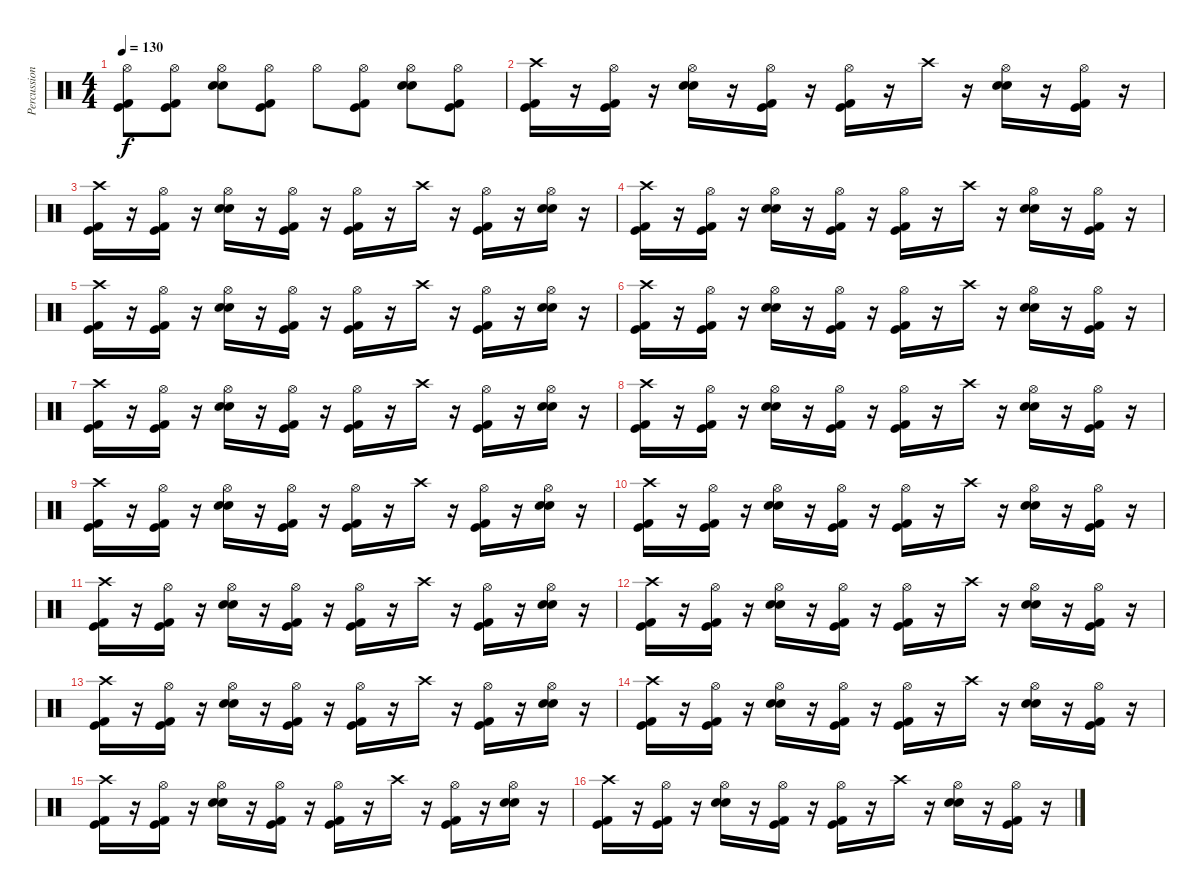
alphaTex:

\track ("Percussions" "Percussion") {instrument percussion}
\staff {score}
\articulation defaults
\ts (4 4)
\tempo 130
\clef neutral
\ks c
("Hi-Hat (open)" "Kick (hit)" "Kick (hit) 2").8{dy f} ("Hi-Hat (open)" "Kick (hit)" "Kick (hit) 2").8 ("Hi-Hat (open)" "Snare (hit) 2" "Electric Snare (hit)").8 ("Hi-Hat (open)" "Kick (hit)" "Kick (hit) 2").8 "Hi-Hat (open)".8 ("Hi-Hat (open)" "Kick (hit)" "Kick (hit) 2").8 ("Hi-Hat (open)" "Snare (hit) 2" "Electric Snare (hit)").8 ("Hi-Hat (open)" "Kick (hit)" "Kick (hit) 2").8 |
("Crash high (hit)" "Kick (hit)" "Kick (hit) 2").16 r.16 ("Hi-Hat (open)" "Kick (hit)" "Kick (hit) 2").16 r.16 ("Hi-Hat (open)" "Snare (hit) 2" "Electric Snare (hit)").16 r.16 ("Hi-Hat (open)" "Kick (hit)" "Kick (hit) 2").16 r.16 ("Hi-Hat (open)" "Kick (hit)" "Kick (hit) 2").16 r.16 "Crash high (hit)".16 r.16 ("Hi-Hat (open)" "Snare (hit) 2" "Electric Snare (hit)").16 r.16 ("Hi-Hat (open)" "Kick (hit)" "Kick (hit) 2").16 r.16 |
("Crash high (hit)" "Kick (hit)" "Kick (hit) 2").16 r.16 ("Hi-Hat (open)" "Kick (hit)" "Kick (hit) 2").16 r.16 ("Hi-Hat (open)" "Snare (hit) 2" "Electric Snare (hit)").16 r.16 ("Hi-Hat (open)" "Kick (hit)" "Kick (hit) 2").16 r.16 ("Hi-Hat (open)" "Kick (hit)" "Kick (hit) 2").16 r.16 "Crash high (hit)".16 r.16 ("Hi-Hat (open)" "Kick (hit)" "Kick (hit) 2").16 r.16 ("Hi-Hat (open)" "Snare (hit) 2" "Electric Snare (hit)").16 r.16 |
("Crash high (hit)" "Kick (hit)" "Kick (hit) 2").16 r.16 ("Hi-Hat (open)" "Kick (hit)" "Kick (hit) 2").16 r.16 ("Hi-Hat (open)" "Snare (hit) 2" "Electric Snare (hit)").16 r.16 ("Hi-Hat (open)" "Kick (hit)" "Kick (hit) 2").16 r.16 ("Hi-Hat (open)" "Kick (hit)" "Kick (hit) 2").16 r.16 "Crash high (hit)".16 r.16 ("Hi-Hat (open)" "Snare (hit) 2" "Electric Snare (hit)").16 r.16 ("Hi-Hat (open)" "Kick (hit)" "Kick (hit) 2").16 r.16 |
("Crash high (hit)" "Kick (hit)" "Kick (hit) 2").16 r.16 ("Hi-Hat (open)" "Kick (hit)" "Kick (hit) 2").16 r.16 ("Hi-Hat (open)" "Snare (hit) 2" "Electric Snare (hit)").16 r.16 ("Hi-Hat (open)" "Kick (hit)" "Kick (hit) 2").16 r.16 ("Hi-Hat (open)" "Kick (hit)" "Kick (hit) 2").16 r.16 "Crash high (hit)".16 r.16 ("Hi-Hat (open)" "Kick (hit)" "Kick (hit) 2").16 r.16 ("Hi-Hat (open)" "Snare (hit) 2" "Electric Snare (hit)").16 r.16 |
("Crash high (hit)" "Kick (hit)" "Kick (hit) 2").16 r.16 ("Hi-Hat (open)" "Kick (hit)" "Kick (hit) 2").16 r.16 ("Hi-Hat (open)" "Snare (hit) 2" "Electric Snare (hit)").16 r.16 ("Hi-Hat (open)" "Kick (hit)" "Kick (hit) 2").16 r.16 ("Hi-Hat (open)" "Kick (hit)" "Kick (hit) 2").16 r.16 "Crash high (hit)".16 r.16 ("Hi-Hat (open)" "Snare (hit) 2" "Electric Snare (hit)").16 r.16 ("Hi-Hat (open)" "Kick (hit)" "Kick (hit) 2").16 r.16 |
("Crash high (hit)" "Kick (hit)" "Kick (hit) 2").16 r.16 ("Hi-Hat (open)" "Kick (hit)" "Kick (hit) 2").16 r.16 ("Hi-Hat (open)" "Snare (hit) 2" "Electric Snare (hit)").16 r.16 ("Hi-Hat (open)" "Kick (hit)" "Kick (hit) 2").16 r.16 ("Hi-Hat (open)" "Kick (hit)" "Kick (hit) 2").16 r.16 "Crash high (hit)".16 r.16 ("Hi-Hat (open)" "Kick (hit)" "Kick (hit) 2").16 r.16 ("Hi-Hat (open)" "Snare (hit) 2" "Electric Snare (hit)").16 r.16 |
("Crash high (hit)" "Kick (hit)" "Kick (hit) 2").16 r.16 ("Hi-Hat (open)" "Kick (hit)" "Kick (hit) 2").16 r.16 ("Hi-Hat (open)" "Snare (hit) 2" "Electric Snare (hit)").16 r.16 ("Hi-Hat (open)" "Kick (hit)" "Kick (hit) 2").16 r.16 ("Hi-Hat (open)" "Kick (hit)" "Kick (hit) 2").16 r.16 "Crash high (hit)".16 r.16 ("Hi-Hat (open)" "Snare (hit) 2" "Electric Snare (hit)").16 r.16 ("Hi-Hat (open)" "Kick (hit)" "Kick (hit) 2").16 r.16 |
("Crash high (hit)" "Kick (hit)" "Kick (hit) 2").16 r.16 ("Hi-Hat (open)" "Kick (hit)" "Kick (hit) 2").16 r.16 ("Hi-Hat (open)" "Snare (hit) 2" "Electric Snare (hit)").16 r.16 ("Hi-Hat (open)" "Kick (hit)" "Kick (hit) 2").16 r.16 ("Hi-Hat (open)" "Kick (hit)" "Kick (hit) 2").16 r.16 "Crash high (hit)".16 r.16 ("Hi-Hat (open)" "Kick (hit)" "Kick (hit) 2").16 r.16 ("Hi-Hat (open)" "Snare (hit) 2" "Electric Snare (hit)").16 r.16 |
("Crash high (hit)" "Kick (hit)" "Kick (hit) 2").16 r.16 ("Hi-Hat (open)" "Kick (hit)" "Kick (hit) 2").16 r.16 ("Hi-Hat (open)" "Snare (hit) 2" "Electric Snare (hit)").16 r.16 ("Hi-Hat (open)" "Kick (hit)" "Kick (hit) 2").16 r.16 ("Hi-Hat (open)" "Kick (hit)" "Kick (hit) 2").16 r.16 "Crash high (hit)".16 r.16 ("Hi-Hat (open)" "Snare (hit) 2" "Electric Snare (hit)").16 r.16 ("Hi-Hat (open)" "Kick (hit)" "Kick (hit) 2").16 r.16 |
("Crash high (hit)" "Kick (hit)" "Kick (hit) 2").16 r.16 ("Hi-Hat (open)" "Kick (hit)" "Kick (hit) 2").16 r.16 ("Hi-Hat (open)" "Snare (hit) 2" "Electric Snare (hit)").16 r.16 ("Hi-Hat (open)" "Kick (hit)" "Kick (hit) 2").16 r.16 ("Hi-Hat (open)" "Kick (hit)" "Kick (hit) 2").16 r.16 "Crash high (hit)".16 r.16 ("Hi-Hat (open)" "Kick (hit)" "Kick (hit) 2").16 r.16 ("Hi-Hat (open)" "Snare (hit) 2" "Electric Snare (hit)").16 r.16 |
("Crash high (hit)" "Kick (hit)" "Kick (hit) 2").16 r.16 ("Hi-Hat (open)" "Kick (hit)" "Kick (hit) 2").16 r.16 ("Hi-Hat (open)" "Snare (hit) 2" "Electric Snare (hit)").16 r.16 ("Hi-Hat (open)" "Kick (hit)" "Kick (hit) 2").16 r.16 ("Hi-Hat (open)" "Kick (hit)" "Kick (hit) 2").16 r.16 "Crash high (hit)".16 r.16 ("Hi-Hat (open)" "Snare (hit) 2" "Electric Snare (hit)").16 r.16 ("Hi-Hat (open)" "Kick (hit)" "Kick (hit) 2").16 r.16 |
("Crash high (hit)" "Kick (hit)" "Kick (hit) 2").16 r.16 ("Hi-Hat (open)" "Kick (hit)" "Kick (hit) 2").16 r.16 ("Hi-Hat (open)" "Snare (hit) 2" "Electric Snare (hit)").16 r.16 ("Hi-Hat (open)" "Kick (hit)" "Kick (hit) 2").16 r.16 ("Hi-Hat (open)" "Kick (hit)" "Kick (hit) 2").16 r.16 "Crash high (hit)".16 r.16 ("Hi-Hat (open)" "Kick (hit)" "Kick (hit) 2").16 r.16 ("Hi-Hat (open)" "Snare (hit) 2" "Electric Snare (hit)").16 r.16 |
("Crash high (hit)" "Kick (hit)" "Kick (hit) 2").16 r.16 ("Hi-Hat (open)" "Kick (hit)" "Kick (hit) 2").16 r.16 ("Hi-Hat (open)" "Snare (hit) 2" "Electric Snare (hit)").16 r.16 ("Hi-Hat (open)" "Kick (hit)" "Kick (hit) 2").16 r.16 ("Hi-Hat (open)" "Kick (hit)" "Kick (hit) 2").16 r.16 "Crash high (hit)".16 r.16 ("Hi-Hat (open)" "Snare (hit) 2" "Electric Snare (hit)").16 r.16 ("Hi-Hat (open)" "Kick (hit)" "Kick (hit) 2").16 r.16 |
("Crash high (hit)" "Kick (hit)" "Kick (hit) 2").16 r.16 ("Hi-Hat (open)" "Kick (hit)" "Kick (hit) 2").16 r.16 ("Hi-Hat (open)" "Snare (hit) 2" "Electric Snare (hit)").16 r.16 ("Hi-Hat (open)" "Kick (hit)" "Kick (hit) 2").16 r.16 ("Hi-Hat (open)" "Kick (hit)" "Kick (hit) 2").16 r.16 "Crash high (hit)".16 r.16 ("Hi-Hat (open)" "Kick (hit)" "Kick (hit) 2").16 r.16 ("Hi-Hat (open)" "Snare (hit) 2" "Electric Snare (hit)").16 r.16 |
("Crash high (hit)" "Kick (hit)" "Kick (hit) 2").16 r.16 ("Hi-Hat (open)" "Kick (hit)" "Kick (hit) 2").16 r.16 ("Hi-Hat (open)" "Snare (hit) 2" "Electric Snare (hit)").16 r.16 ("Hi-Hat (open)" "Kick (hit)" "Kick (hit) 2").16 r.16 ("Hi-Hat (open)" "Kick (hit)" "Kick (hit) 2").16 r.16 "Crash high (hit)".16 r.16 ("Hi-Hat (open)" "Snare (hit) 2" "Electric Snare (hit)").16 r.16 ("Hi-Hat (open)" "Kick (hit)" "Kick (hit) 2").16 r.16
